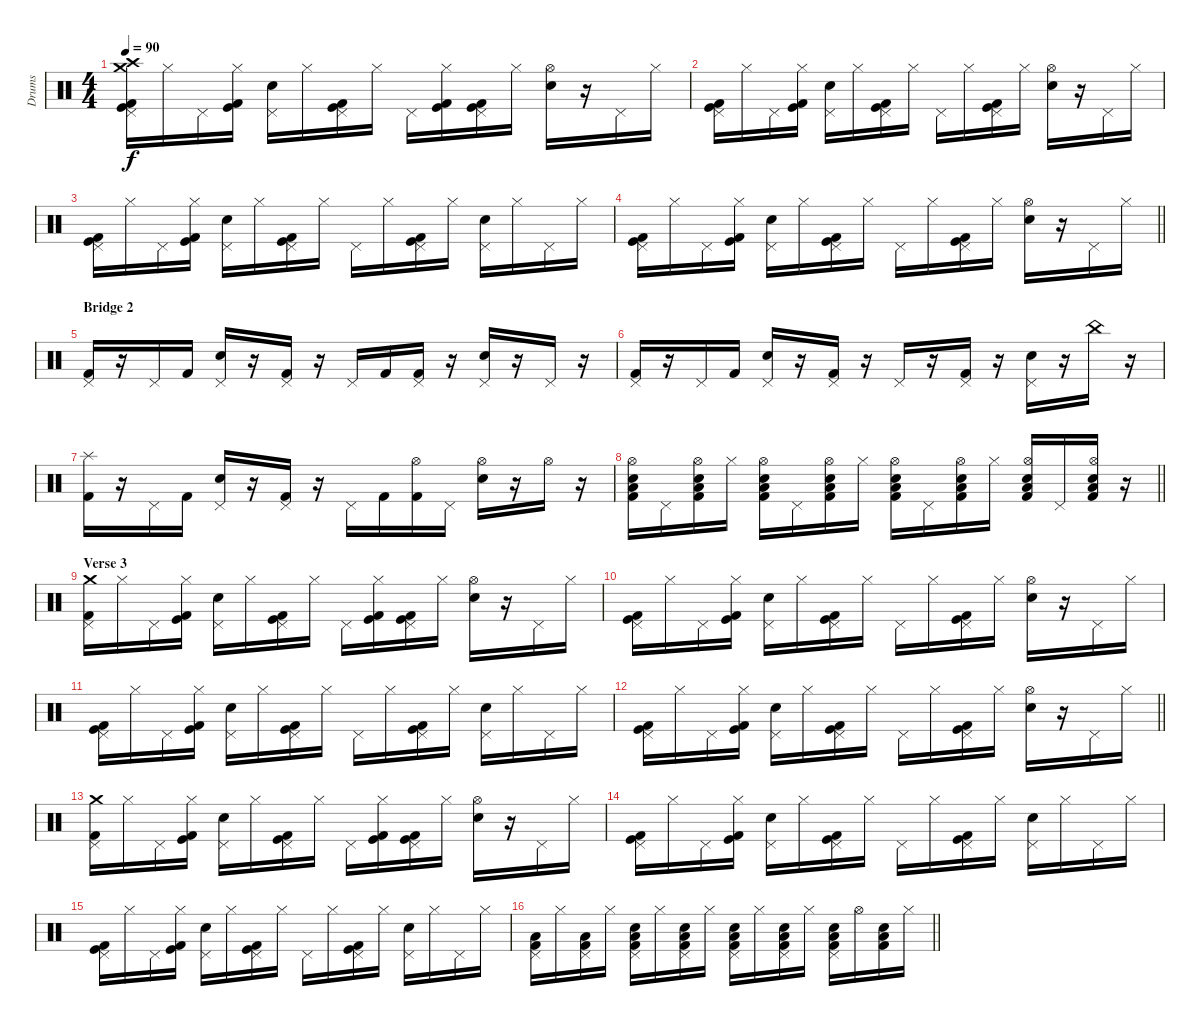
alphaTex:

\track ("Drums" "Drums") {instrument percussion}
\staff {score}
\articulation defaults
\ts (4 4)
\tempo 90
\clef neutral
\ks c
("Crash high (hit)" "Pedal Hi-Hat (hit)" "Crash medium (hit)" "Kick (hit)" "Kick (hit) 2").16{dy f} "Hi-Hat (closed)".16 "Pedal Hi-Hat (hit)".16 ("Hi-Hat (closed)" "Kick (hit)" "Kick (hit) 2").16 ("Pedal Hi-Hat (hit)" "Electric Snare (hit)").16 "Hi-Hat (closed)".16 ("Pedal Hi-Hat (hit)" "Kick (hit)" "Kick (hit) 2").16 "Hi-Hat (closed)".16 "Pedal Hi-Hat (hit)".16 ("Hi-Hat (closed)" "Kick (hit)" "Kick (hit) 2").16 ("Pedal Hi-Hat (hit)" "Kick (hit)" "Kick (hit) 2").16 "Hi-Hat (closed)".16 ("Hi-Hat (open)" "Electric Snare (hit)").16 r.16 "Pedal Hi-Hat (hit)".16 "Hi-Hat (closed)".16 |
("Pedal Hi-Hat (hit)" "Kick (hit)" "Kick (hit) 2").16 "Hi-Hat (closed)".16 "Pedal Hi-Hat (hit)".16 ("Hi-Hat (closed)" "Kick (hit)" "Kick (hit) 2").16 ("Pedal Hi-Hat (hit)" "Electric Snare (hit)").16 "Hi-Hat (closed)".16 ("Pedal Hi-Hat (hit)" "Kick (hit)" "Kick (hit) 2").16 "Hi-Hat (closed)".16 "Pedal Hi-Hat (hit)".16 "Hi-Hat (closed)".16 ("Pedal Hi-Hat (hit)" "Kick (hit)" "Kick (hit) 2").16 "Hi-Hat (closed)".16 ("Hi-Hat (open)" "Electric Snare (hit)").16 r.16 "Pedal Hi-Hat (hit)".16 "Hi-Hat (closed)".16 |
("Pedal Hi-Hat (hit)" "Kick (hit)" "Kick (hit) 2").16 "Hi-Hat (closed)".16 "Pedal Hi-Hat (hit)".16 ("Hi-Hat (closed)" "Kick (hit)" "Kick (hit) 2").16 ("Pedal Hi-Hat (hit)" "Electric Snare (hit)").16 "Hi-Hat (closed)".16 ("Pedal Hi-Hat (hit)" "Kick (hit)" "Kick (hit) 2").16 "Hi-Hat (closed)".16 "Pedal Hi-Hat (hit)".16 "Hi-Hat (closed)".16 ("Pedal Hi-Hat (hit)" "Kick (hit)" "Kick (hit) 2").16 "Hi-Hat (closed)".16 ("Pedal Hi-Hat (hit)" "Electric Snare (hit)").16 "Hi-Hat (closed)".16 "Pedal Hi-Hat (hit)".16 "Hi-Hat (closed)".16 |
\barLineRight lightlight
("Pedal Hi-Hat (hit)" "Kick (hit)" "Kick (hit) 2").16 "Hi-Hat (closed)".16 "Pedal Hi-Hat (hit)".16 ("Hi-Hat (closed)" "Kick (hit)" "Kick (hit) 2").16 ("Pedal Hi-Hat (hit)" "Electric Snare (hit)").16 "Hi-Hat (closed)".16 ("Pedal Hi-Hat (hit)" "Kick (hit)" "Kick (hit) 2").16 "Hi-Hat (closed)".16 "Pedal Hi-Hat (hit)".16 "Hi-Hat (closed)".16 ("Pedal Hi-Hat (hit)" "Kick (hit)" "Kick (hit) 2").16 "Hi-Hat (closed)".16 ("Hi-Hat (open)" "Electric Snare (hit)").16 r.16 "Pedal Hi-Hat (hit)".16 "Hi-Hat (closed)".16 |
\section ("" "Bridge 2")
("Pedal Hi-Hat (hit)" "Kick (hit) 2").16{volume 10} r.16 "Pedal Hi-Hat (hit)".16 "Kick (hit) 2".16 ("Pedal Hi-Hat (hit)" "Electric Snare (hit)").16 r.16 ("Pedal Hi-Hat (hit)" "Kick (hit) 2").16 r.16 "Pedal Hi-Hat (hit)".16 "Kick (hit) 2".16 ("Pedal Hi-Hat (hit)" "Kick (hit) 2").16 r.16 ("Pedal Hi-Hat (hit)" "Electric Snare (hit)").16 r.16 "Pedal Hi-Hat (hit)".16 r.16 |
("Pedal Hi-Hat (hit)" "Kick (hit) 2").16 r.16 "Pedal Hi-Hat (hit)".16 "Kick (hit) 2".16 ("Pedal Hi-Hat (hit)" "Electric Snare (hit)").16 r.16 ("Pedal Hi-Hat (hit)" "Kick (hit) 2").16 r.16 "Pedal Hi-Hat (hit)".16 r.16 ("Pedal Hi-Hat (hit)" "Kick (hit) 2").16 r.16 ("Pedal Hi-Hat (hit)" "Electric Snare (hit)").16 r.16 "China (hit)".16 r.16 |
("Splash (hit)" "Kick (hit) 2").16{volume 12} r.16 "Pedal Hi-Hat (hit)".16 "Kick (hit) 2".16 ("Pedal Hi-Hat (hit)" "Electric Snare (hit)").16 r.16 ("Pedal Hi-Hat (hit)" "Kick (hit) 2").16 r.16 "Pedal Hi-Hat (hit)".16 "Kick (hit) 2".16 ("Hi-Hat (open)" "Kick (hit) 2").16 "Pedal Hi-Hat (hit)".16 ("Hi-Hat (open)" "Electric Snare (hit)").16 r.16 "Hi-Hat (open)".16 r.16 |
\barLineRight lightlight
("Hi-Hat (open)" "Electric Snare (hit)" "Low Floor Tom (hit)" "Kick (hit) 2").16{volume 14} "Pedal Hi-Hat (hit)".16 ("Hi-Hat (open)" "Electric Snare (hit)" "Low Floor Tom (hit)" "Kick (hit) 2").16 "Hi-Hat (closed)".16 ("Hi-Hat (open)" "Electric Snare (hit)" "Low Floor Tom (hit)" "Kick (hit) 2").16 "Pedal Hi-Hat (hit)".16 ("Hi-Hat (open)" "Electric Snare (hit)" "Low Floor Tom (hit)" "Kick (hit) 2").16 "Hi-Hat (closed)".16 ("Hi-Hat (open)" "Electric Snare (hit)" "Low Floor Tom (hit)" "Kick (hit) 2").16{volume 16} "Pedal Hi-Hat (hit)".16 ("Hi-Hat (open)" "Electric Snare (hit)" "Low Floor Tom (hit)" "Kick (hit) 2").16 "Hi-Hat (closed)".16 ("Hi-Hat (open)" "Electric Snare (hit)" "Low Floor Tom (hit)" "Kick (hit) 2").16 "Pedal Hi-Hat (hit)".16 ("Hi-Hat (open)" "Electric Snare (hit)" "Low Floor Tom (hit)" "Kick (hit) 2").16 r.16 |
\section ("" "Verse 3")
("Pedal Hi-Hat (hit)" "Crash medium (hit)" "Kick (hit) 2").16{volume 14} "Hi-Hat (closed)".16 "Pedal Hi-Hat (hit)".16 ("Hi-Hat (closed)" "Kick (hit)" "Kick (hit) 2").16 ("Pedal Hi-Hat (hit)" "Electric Snare (hit)").16 "Hi-Hat (closed)".16 ("Pedal Hi-Hat (hit)" "Kick (hit)" "Kick (hit) 2").16 "Hi-Hat (closed)".16 "Pedal Hi-Hat (hit)".16 ("Hi-Hat (closed)" "Kick (hit)" "Kick (hit) 2").16 ("Pedal Hi-Hat (hit)" "Kick (hit)" "Kick (hit) 2").16 "Hi-Hat (closed)".16 ("Hi-Hat (open)" "Electric Snare (hit)").16 r.16 "Pedal Hi-Hat (hit)".16 "Hi-Hat (closed)".16 |
("Pedal Hi-Hat (hit)" "Kick (hit)" "Kick (hit) 2").16 "Hi-Hat (closed)".16 "Pedal Hi-Hat (hit)".16 ("Hi-Hat (closed)" "Kick (hit)" "Kick (hit) 2").16 ("Pedal Hi-Hat (hit)" "Electric Snare (hit)").16 "Hi-Hat (closed)".16 ("Pedal Hi-Hat (hit)" "Kick (hit)" "Kick (hit) 2").16 "Hi-Hat (closed)".16 "Pedal Hi-Hat (hit)".16 "Hi-Hat (closed)".16 ("Pedal Hi-Hat (hit)" "Kick (hit)" "Kick (hit) 2").16 "Hi-Hat (closed)".16 ("Hi-Hat (open)" "Electric Snare (hit)").16 r.16 "Pedal Hi-Hat (hit)".16 "Hi-Hat (closed)".16 |
("Pedal Hi-Hat (hit)" "Kick (hit)" "Kick (hit) 2").16 "Hi-Hat (closed)".16 "Pedal Hi-Hat (hit)".16 ("Hi-Hat (closed)" "Kick (hit)" "Kick (hit) 2").16 ("Pedal Hi-Hat (hit)" "Electric Snare (hit)").16 "Hi-Hat (closed)".16 ("Pedal Hi-Hat (hit)" "Kick (hit)" "Kick (hit) 2").16 "Hi-Hat (closed)".16 "Pedal Hi-Hat (hit)".16 "Hi-Hat (closed)".16 ("Pedal Hi-Hat (hit)" "Kick (hit)" "Kick (hit) 2").16 "Hi-Hat (closed)".16 ("Pedal Hi-Hat (hit)" "Electric Snare (hit)").16 "Hi-Hat (closed)".16 "Pedal Hi-Hat (hit)".16 "Hi-Hat (closed)".16 |
\barLineRight lightlight
("Pedal Hi-Hat (hit)" "Kick (hit)" "Kick (hit) 2").16 "Hi-Hat (closed)".16 "Pedal Hi-Hat (hit)".16 ("Hi-Hat (closed)" "Kick (hit)" "Kick (hit) 2").16 ("Pedal Hi-Hat (hit)" "Electric Snare (hit)").16 "Hi-Hat (closed)".16 ("Pedal Hi-Hat (hit)" "Kick (hit)" "Kick (hit) 2").16 "Hi-Hat (closed)".16 "Pedal Hi-Hat (hit)".16 "Hi-Hat (closed)".16 ("Pedal Hi-Hat (hit)" "Kick (hit)" "Kick (hit) 2").16 "Hi-Hat (closed)".16 ("Hi-Hat (open)" "Electric Snare (hit)").16 r.16 "Pedal Hi-Hat (hit)".16 "Hi-Hat (closed)".16 |
("Pedal Hi-Hat (hit)" "Crash medium (hit)" "Kick (hit) 2").16 "Hi-Hat (closed)".16 "Pedal Hi-Hat (hit)".16 ("Hi-Hat (closed)" "Kick (hit)" "Kick (hit) 2").16 ("Pedal Hi-Hat (hit)" "Electric Snare (hit)").16 "Hi-Hat (closed)".16 ("Pedal Hi-Hat (hit)" "Kick (hit)" "Kick (hit) 2").16 "Hi-Hat (closed)".16 "Pedal Hi-Hat (hit)".16 ("Hi-Hat (closed)" "Kick (hit)" "Kick (hit) 2").16 ("Pedal Hi-Hat (hit)" "Kick (hit)" "Kick (hit) 2").16 "Hi-Hat (closed)".16 ("Hi-Hat (open)" "Electric Snare (hit)").16 r.16 "Pedal Hi-Hat (hit)".16 "Hi-Hat (closed)".16 |
("Pedal Hi-Hat (hit)" "Kick (hit)" "Kick (hit) 2").16 "Hi-Hat (closed)".16 "Pedal Hi-Hat (hit)".16 ("Hi-Hat (closed)" "Kick (hit)" "Kick (hit) 2").16 ("Pedal Hi-Hat (hit)" "Electric Snare (hit)").16 "Hi-Hat (closed)".16 ("Pedal Hi-Hat (hit)" "Kick (hit)" "Kick (hit) 2").16 "Hi-Hat (closed)".16 "Pedal Hi-Hat (hit)".16 "Hi-Hat (closed)".16 ("Pedal Hi-Hat (hit)" "Kick (hit)" "Kick (hit) 2").16 "Hi-Hat (closed)".16 ("Pedal Hi-Hat (hit)" "Electric Snare (hit)").16 "Hi-Hat (closed)".16 "Pedal Hi-Hat (hit)".16 "Hi-Hat (closed)".16 |
("Pedal Hi-Hat (hit)" "Kick (hit)" "Kick (hit) 2").16 "Hi-Hat (closed)".16 "Pedal Hi-Hat (hit)".16 ("Hi-Hat (closed)" "Kick (hit)" "Kick (hit) 2").16 ("Pedal Hi-Hat (hit)" "Electric Snare (hit)").16 "Hi-Hat (closed)".16 ("Pedal Hi-Hat (hit)" "Kick (hit)" "Kick (hit) 2").16 "Hi-Hat (closed)".16 "Pedal Hi-Hat (hit)".16 "Hi-Hat (closed)".16 ("Pedal Hi-Hat (hit)" "Kick (hit)" "Kick (hit) 2").16 "Hi-Hat (closed)".16 ("Pedal Hi-Hat (hit)" "Electric Snare (hit)").16 "Hi-Hat (closed)".16 "Pedal Hi-Hat (hit)".16 "Hi-Hat (closed)".16 |
\barLineRight lightlight
("Pedal Hi-Hat (hit)" "Low Floor Tom (hit)" "Kick (hit) 2").16{volume 12} "Hi-Hat (closed)".16 ("Pedal Hi-Hat (hit)" "Low Floor Tom (hit)" "Kick (hit) 2").16 "Hi-Hat (closed)".16 ("Pedal Hi-Hat (hit)" "Electric Snare (hit)" "Low Floor Tom (hit)" "Kick (hit) 2").16 "Hi-Hat (closed)".16 ("Pedal Hi-Hat (hit)" "Electric Snare (hit)" "Low Floor Tom (hit)" "Kick (hit) 2").16 "Hi-Hat (closed)".16 ("Pedal Hi-Hat (hit)" "Electric Snare (hit)" "Low Floor Tom (hit)" "Kick (hit) 2").16 "Hi-Hat (closed)".16 ("Pedal Hi-Hat (hit)" "Electric Snare (hit)" "Low Floor Tom (hit)" "Kick (hit) 2").16 "Hi-Hat (closed)".16 ("Pedal Hi-Hat (hit)" "Electric Snare (hit)" "Low Floor Tom (hit)" "Kick (hit) 2").16 "Hi-Hat (open)".16 ("Electric Snare (hit)" "Low Floor Tom (hit)" "Kick (hit) 2").16 "Hi-Hat (closed)".16
